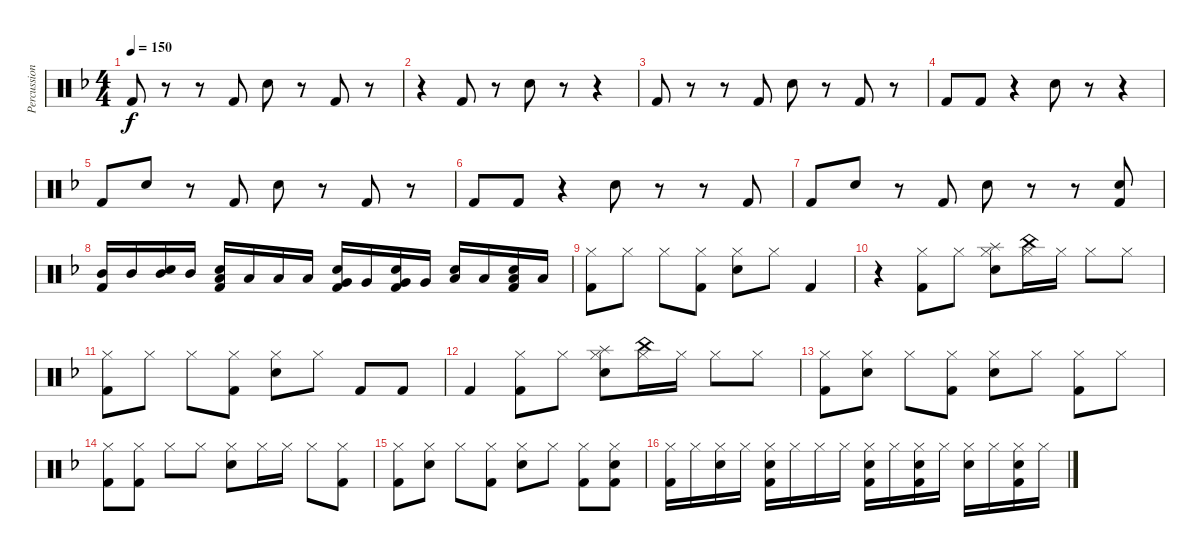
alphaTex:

\track ("Percussion" "Percussion") {instrument percussion}
\staff {score}
\articulation defaults
\ts (4 4)
\tempo 150
\clef neutral
\ks f "Kick (hit) 2".8{dy f}
r.8 r.8 "Kick (hit) 2".8 "Electric Snare (hit)".8 r.8 "Kick (hit) 2".8 r.8 |
r.4 "Kick (hit) 2".8 r.8 "Electric Snare (hit)".8 r.8 r.4 |
"Kick (hit) 2".8 r.8 r.8 "Kick (hit) 2".8 "Electric Snare (hit)".8 r.8 "Kick (hit) 2".8 r.8 |
"Kick (hit) 2".8 "Kick (hit) 2".8 r.4 "Electric Snare (hit)".8 r.8 r.4 |
"Kick (hit) 2".8 "Electric Snare (hit)".8 r.8 "Kick (hit) 2".8 "Electric Snare (hit)".8 r.8 "Kick (hit) 2".8 r.8 |
"Kick (hit) 2".8 "Kick (hit) 2".8 r.4 "Electric Snare (hit)".8 r.8 r.8 "Kick (hit) 2".8 |
"Kick (hit) 2".8 "Electric Snare (hit)".8 r.8 "Kick (hit) 2".8 "Electric Snare (hit)".8 r.8 r.8 ("Electric Snare (hit)" "Kick (hit) 2").8 |
("Mid Tom (hit)" "Kick (hit) 2").16 "Mid Tom (hit)".16 ("Mid Tom (hit)" "Electric Snare (hit)").16 "Mid Tom (hit)".16 ("Low Tom (hit)" "Electric Snare (hit)" "Kick (hit) 2").16 "Low Tom (hit)".16 "Low Tom (hit)".16 "Low Tom (hit)".16 ("Very Low Tom (hit)" "Electric Snare (hit)" "Kick (hit) 2").16 "Very Low Tom (hit)".16 ("Very Low Tom (hit)" "Electric Snare (hit)" "Kick (hit) 2").16 "Very Low Tom (hit)".16 ("Low Floor Tom (hit)" "Electric Snare (hit)").16 "Low Floor Tom (hit)".16 ("Low Floor Tom (hit)" "Electric Snare (hit)" "Kick (hit) 2").16 "Low Floor Tom (hit)".16 |
("Hi-Hat (closed)" "Kick (hit) 2").8 "Hi-Hat (closed)".8 "Hi-Hat (closed)".8 ("Hi-Hat (closed)" "Kick (hit) 2").8 ("Hi-Hat (closed)" "Electric Snare (hit)").8 "Hi-Hat (closed)".8 "Kick (hit) 2".4 |
r.4 ("Hi-Hat (closed)" "Kick (hit) 2").8 "Hi-Hat (closed)".8 ("Hi-Hat (closed)" "Electric Snare (hit)" "Splash (hit)").8 ("Hi-Hat (closed)" "China (hit)").16 "Hi-Hat (closed)".16 "Hi-Hat (closed)".8 "Hi-Hat (closed)".8 |
("Hi-Hat (closed)" "Kick (hit) 2").8 "Hi-Hat (closed)".8 "Hi-Hat (closed)".8 ("Hi-Hat (closed)" "Kick (hit) 2").8 ("Hi-Hat (closed)" "Electric Snare (hit)").8 "Hi-Hat (closed)".8 "Kick (hit) 2".8 "Kick (hit) 2".8 |
"Kick (hit) 2".4 ("Hi-Hat (closed)" "Kick (hit) 2").8 "Hi-Hat (closed)".8 ("Hi-Hat (closed)" "Electric Snare (hit)" "Splash (hit)").8 ("Hi-Hat (closed)" "China (hit)").16 "Hi-Hat (closed)".16 "Hi-Hat (closed)".8 "Hi-Hat (closed)".8 |
("Hi-Hat (closed)" "Kick (hit) 2").8 ("Hi-Hat (closed)" "Electric Snare (hit)").8 "Hi-Hat (closed)".8 ("Hi-Hat (closed)" "Kick (hit) 2").8 ("Hi-Hat (closed)" "Electric Snare (hit)").8 "Hi-Hat (closed)".8 ("Hi-Hat (closed)" "Kick (hit) 2").8 "Hi-Hat (closed)".8 |
("Hi-Hat (closed)" "Kick (hit) 2").8 ("Hi-Hat (closed)" "Kick (hit) 2").8 "Hi-Hat (closed)".8 "Hi-Hat (closed)".8 ("Hi-Hat (closed)" "Electric Snare (hit)").8 "Hi-Hat (closed)".16 "Hi-Hat (closed)".16 "Hi-Hat (closed)".8 ("Hi-Hat (closed)" "Kick (hit) 2").8 |
("Hi-Hat (closed)" "Kick (hit) 2").8 ("Hi-Hat (closed)" "Electric Snare (hit)").8 "Hi-Hat (closed)".8 ("Hi-Hat (closed)" "Kick (hit) 2").8 ("Hi-Hat (closed)" "Electric Snare (hit)").8 "Hi-Hat (closed)".8 ("Hi-Hat (closed)" "Kick (hit) 2").8 ("Hi-Hat (closed)" "Electric Snare (hit)" "Kick (hit) 2").8 |
("Hi-Hat (closed)" "Kick (hit) 2").16 "Hi-Hat (closed)".16 ("Hi-Hat (closed)" "Electric Snare (hit)").16 "Hi-Hat (closed)".16 ("Hi-Hat (closed)" "Electric Snare (hit)" "Kick (hit) 2").16 "Hi-Hat (closed)".16 "Hi-Hat (closed)".16 "Hi-Hat (closed)".16 ("Hi-Hat (closed)" "Electric Snare (hit)" "Kick (hit) 2").16 "Hi-Hat (closed)".16 ("Hi-Hat (closed)" "Electric Snare (hit)" "Kick (hit) 2").16 "Hi-Hat (closed)".16 ("Hi-Hat (closed)" "Electric Snare (hit)").16 "Hi-Hat (closed)".16 ("Hi-Hat (closed)" "Electric Snare (hit)" "Kick (hit) 2").16 "Hi-Hat (closed)".16
